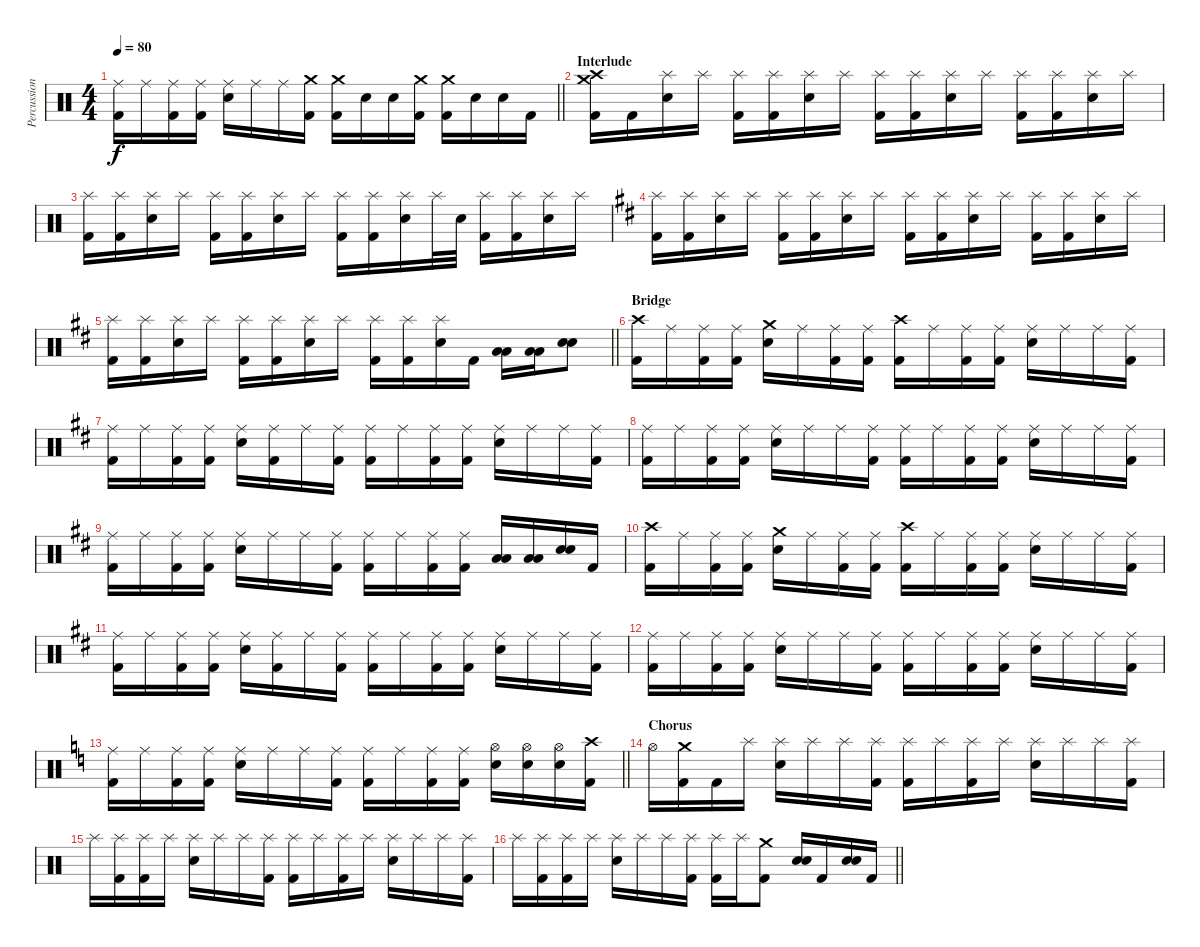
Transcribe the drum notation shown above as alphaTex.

\track ("Percussion" "Percussion") {instrument percussion}
\staff {score}
\articulation defaults
\ts (4 4)
\tempo 80
\clef neutral
\barLineRight lightlight
\ks c
("Ride (middle)" "Kick (hit) 2").16{dy f} "Ride (middle)".16 ("Ride (middle)" "Kick (hit) 2").16 ("Ride (middle)" "Kick (hit) 2").16 ("Ride (middle)" "Electric Snare (hit)").16 "Ride (middle)".16 "Ride (middle)".16 ("Crash medium (hit)" "Kick (hit) 2").16 ("Crash medium (hit)" "Kick (hit) 2").16 "Electric Snare (hit)".16 "Electric Snare (hit)".16 ("Crash medium (hit)" "Kick (hit) 2").16 ("Crash medium (hit)" "Kick (hit) 2").16 "Electric Snare (hit)".16 "Electric Snare (hit)".16 "Kick (hit) 2".16 |
\section ("" "Interlude")
("Crash high (hit)" "Crash medium (hit)" "Kick (hit) 2").16 "Kick (hit) 2".16 ("Splash (hit)" "Electric Snare (hit)").16 "Splash (hit)".16 ("Splash (hit)" "Kick (hit) 2").16 ("Splash (hit)" "Kick (hit) 2").16 ("Splash (hit)" "Electric Snare (hit)").16 "Splash (hit)".16 ("Splash (hit)" "Kick (hit) 2").16 ("Splash (hit)" "Kick (hit) 2").16 ("Splash (hit)" "Electric Snare (hit)").16 "Splash (hit)".16 ("Splash (hit)" "Kick (hit) 2").16 ("Splash (hit)" "Kick (hit) 2").16 ("Splash (hit)" "Electric Snare (hit)").16 "Splash (hit)".16 |
("Splash (hit)" "Kick (hit) 2").16 ("Splash (hit)" "Kick (hit) 2").16 ("Splash (hit)" "Electric Snare (hit)").16 "Splash (hit)".16 ("Splash (hit)" "Kick (hit) 2").16 ("Splash (hit)" "Kick (hit) 2").16 ("Splash (hit)" "Electric Snare (hit)").16 "Splash (hit)".16 ("Splash (hit)" "Kick (hit) 2").16 ("Splash (hit)" "Kick (hit) 2").16 ("Splash (hit)" "Electric Snare (hit)").16 "Splash (hit)".32 "Electric Snare (hit)".32 ("Splash (hit)" "Kick (hit) 2").16 ("Splash (hit)" "Kick (hit) 2").16 ("Splash (hit)" "Electric Snare (hit)").16 "Splash (hit)".16 |
\ks d
("Splash (hit)" "Kick (hit) 2").16 ("Splash (hit)" "Kick (hit) 2").16 ("Splash (hit)" "Electric Snare (hit)").16 "Splash (hit)".16 ("Splash (hit)" "Kick (hit) 2").16 ("Splash (hit)" "Kick (hit) 2").16 ("Splash (hit)" "Electric Snare (hit)").16 "Splash (hit)".16 ("Splash (hit)" "Kick (hit) 2").16 ("Splash (hit)" "Kick (hit) 2").16 ("Splash (hit)" "Electric Snare (hit)").16 "Splash (hit)".16 ("Splash (hit)" "Kick (hit) 2").16 ("Splash (hit)" "Kick (hit) 2").16 ("Splash (hit)" "Electric Snare (hit)").16 "Splash (hit)".16 |
\barLineRight lightlight
("Splash (hit)" "Kick (hit) 2").16 ("Splash (hit)" "Kick (hit) 2").16 ("Splash (hit)" "Electric Snare (hit)").16 "Splash (hit)".16 ("Splash (hit)" "Kick (hit) 2").16 ("Splash (hit)" "Kick (hit) 2").16 ("Splash (hit)" "Electric Snare (hit)").16 "Splash (hit)".16 ("Splash (hit)" "Kick (hit) 2").16 ("Splash (hit)" "Kick (hit) 2").16 ("Splash (hit)" "Electric Snare (hit)").16 "Kick (hit) 2".16 ("Low Tom (hit)" "Low Floor Tom (hit)").16 ("Low Tom (hit)" "Low Floor Tom (hit)").16 ("Electric Snare (hit)" "Electric Snare (hit)").8 |
\section ("" "Bridge")
("Crash high (hit)" "Kick (hit) 2").16 "Ride (middle)".16 ("Ride (middle)" "Kick (hit) 2").16 ("Ride (middle)" "Kick (hit) 2").16 ("Crash medium (hit)" "Electric Snare (hit)").16 "Ride (middle)".16 ("Ride (middle)" "Kick (hit) 2").16 ("Ride (middle)" "Kick (hit) 2").16 ("Crash high (hit)" "Kick (hit) 2").16 "Ride (middle)".16 ("Ride (middle)" "Kick (hit) 2").16 ("Ride (middle)" "Kick (hit) 2").16 ("Ride (middle)" "Electric Snare (hit)").16 "Ride (middle)".16 "Ride (middle)".16 ("Ride (middle)" "Kick (hit) 2").16 |
("Ride (middle)" "Kick (hit) 2").16 "Ride (middle)".16 ("Ride (middle)" "Kick (hit) 2").16 ("Ride (middle)" "Kick (hit) 2").16 ("Ride (middle)" "Electric Snare (hit)").16 ("Ride (middle)" "Kick (hit) 2").16 "Ride (middle)".16 ("Ride (middle)" "Kick (hit) 2").16 ("Ride (middle)" "Kick (hit) 2").16 "Ride (middle)".16 ("Ride (middle)" "Kick (hit) 2").16 ("Ride (middle)" "Kick (hit) 2").16 ("Ride (middle)" "Electric Snare (hit)").16 "Ride (middle)".16 "Ride (middle)".16 ("Ride (middle)" "Kick (hit) 2").16 |
("Ride (middle)" "Kick (hit) 2").16 "Ride (middle)".16 ("Ride (middle)" "Kick (hit) 2").16 ("Ride (middle)" "Kick (hit) 2").16 ("Ride (middle)" "Electric Snare (hit)").16 "Ride (middle)".16 "Ride (middle)".16 ("Ride (middle)" "Kick (hit) 2").16 ("Ride (middle)" "Kick (hit) 2").16 "Ride (middle)".16 ("Ride (middle)" "Kick (hit) 2").16 ("Ride (middle)" "Kick (hit) 2").16 ("Ride (middle)" "Electric Snare (hit)").16 "Ride (middle)".16 "Ride (middle)".16 ("Ride (middle)" "Kick (hit) 2").16 |
("Ride (middle)" "Kick (hit) 2").16 "Ride (middle)".16 ("Ride (middle)" "Kick (hit) 2").16 ("Ride (middle)" "Kick (hit) 2").16 ("Ride (middle)" "Electric Snare (hit)").16 "Ride (middle)".16 "Ride (middle)".16 ("Ride (middle)" "Kick (hit) 2").16 ("Ride (middle)" "Kick (hit) 2").16 "Ride (middle)".16 ("Ride (middle)" "Kick (hit) 2").16 ("Ride (middle)" "Kick (hit) 2").16 ("Low Tom (hit)" "Low Floor Tom (hit)").16 ("Low Tom (hit)" "Low Floor Tom (hit)").16 ("Electric Snare (hit)" "Electric Snare (hit)").16 "Kick (hit) 2".16 |
("Crash high (hit)" "Kick (hit) 2").16 "Ride (middle)".16 ("Ride (middle)" "Kick (hit) 2").16 ("Ride (middle)" "Kick (hit) 2").16 ("Crash medium (hit)" "Electric Snare (hit)").16 "Ride (middle)".16 ("Ride (middle)" "Kick (hit) 2").16 ("Ride (middle)" "Kick (hit) 2").16 ("Crash high (hit)" "Kick (hit) 2").16 "Ride (middle)".16 ("Ride (middle)" "Kick (hit) 2").16 ("Ride (middle)" "Kick (hit) 2").16 ("Ride (middle)" "Electric Snare (hit)").16 "Ride (middle)".16 "Ride (middle)".16 ("Ride (middle)" "Kick (hit) 2").16 |
("Ride (middle)" "Kick (hit) 2").16 "Ride (middle)".16 ("Ride (middle)" "Kick (hit) 2").16 ("Ride (middle)" "Kick (hit) 2").16 ("Ride (middle)" "Electric Snare (hit)").16 ("Ride (middle)" "Kick (hit) 2").16 "Ride (middle)".16 ("Ride (middle)" "Kick (hit) 2").16 ("Ride (middle)" "Kick (hit) 2").16 "Ride (middle)".16 ("Ride (middle)" "Kick (hit) 2").16 ("Ride (middle)" "Kick (hit) 2").16 ("Ride (middle)" "Electric Snare (hit)").16 "Ride (middle)".16 "Ride (middle)".16 ("Ride (middle)" "Kick (hit) 2").16 |
("Ride (middle)" "Kick (hit) 2").16 "Ride (middle)".16 ("Ride (middle)" "Kick (hit) 2").16 ("Ride (middle)" "Kick (hit) 2").16 ("Ride (middle)" "Electric Snare (hit)").16 "Ride (middle)".16 "Ride (middle)".16 ("Ride (middle)" "Kick (hit) 2").16 ("Ride (middle)" "Kick (hit) 2").16 "Ride (middle)".16 ("Ride (middle)" "Kick (hit) 2").16 ("Ride (middle)" "Kick (hit) 2").16 ("Ride (middle)" "Electric Snare (hit)").16 "Ride (middle)".16 "Ride (middle)".16 ("Ride (middle)" "Kick (hit) 2").16 |
\barLineRight lightlight
\ks c
("Ride (middle)" "Kick (hit) 2").16 "Ride (middle)".16 ("Ride (middle)" "Kick (hit) 2").16 ("Ride (middle)" "Kick (hit) 2").16 ("Ride (middle)" "Electric Snare (hit)").16 "Ride (middle)".16 "Ride (middle)".16 ("Ride (middle)" "Kick (hit) 2").16 ("Ride (middle)" "Kick (hit) 2").16 "Ride (middle)".16 ("Ride (middle)" "Kick (hit) 2").16 ("Ride (middle)" "Kick (hit) 2").16 ("Hi-Hat (open)" "Electric Snare (hit)").16 ("Hi-Hat (open)" "Electric Snare (hit)").16 ("Hi-Hat (open)" "Electric Snare (hit)").16 ("Crash high (hit)" "Kick (hit) 2").16 |
\section ("" "Chorus")
"Hi-Hat (open)".16 ("Crash medium (hit)" "Kick (hit) 2").16 "Kick (hit) 2".16 "Splash (hit)".16 ("Splash (hit)" "Electric Snare (hit)").16 "Splash (hit)".16 "Splash (hit)".16 ("Splash (hit)" "Kick (hit) 2").16 ("Splash (hit)" "Kick (hit) 2").16 "Splash (hit)".16 ("Splash (hit)" "Kick (hit) 2").16 "Splash (hit)".16 ("Splash (hit)" "Electric Snare (hit)").16 "Splash (hit)".16 "Splash (hit)".16 ("Splash (hit)" "Kick (hit) 2").16 |
"Splash (hit)".16 ("Splash (hit)" "Kick (hit) 2").16 ("Splash (hit)" "Kick (hit) 2").16 "Splash (hit)".16 ("Splash (hit)" "Electric Snare (hit)").16 "Splash (hit)".16 "Splash (hit)".16 ("Splash (hit)" "Kick (hit) 2").16 ("Splash (hit)" "Kick (hit) 2").16 "Splash (hit)".16 ("Splash (hit)" "Kick (hit) 2").16 "Splash (hit)".16 ("Splash (hit)" "Electric Snare (hit)").16 "Splash (hit)".16 "Splash (hit)".16 ("Splash (hit)" "Kick (hit) 2").16 |
\barLineRight lightlight "Splash (hit)".16
("Splash (hit)" "Kick (hit) 2").16 ("Splash (hit)" "Kick (hit) 2").16 "Splash (hit)".16 ("Splash (hit)" "Electric Snare (hit)").16 "Splash (hit)".16 "Splash (hit)".16 ("Splash (hit)" "Kick (hit) 2").16 ("Splash (hit)" "Kick (hit) 2").16 "Splash (hit)".16 ("Crash medium (hit)" "Kick (hit) 2").8 ("Electric Snare (hit)" "Electric Snare (hit)").16 "Kick (hit) 2".16 ("Electric Snare (hit)" "Electric Snare (hit)").16 "Kick (hit) 2".16
